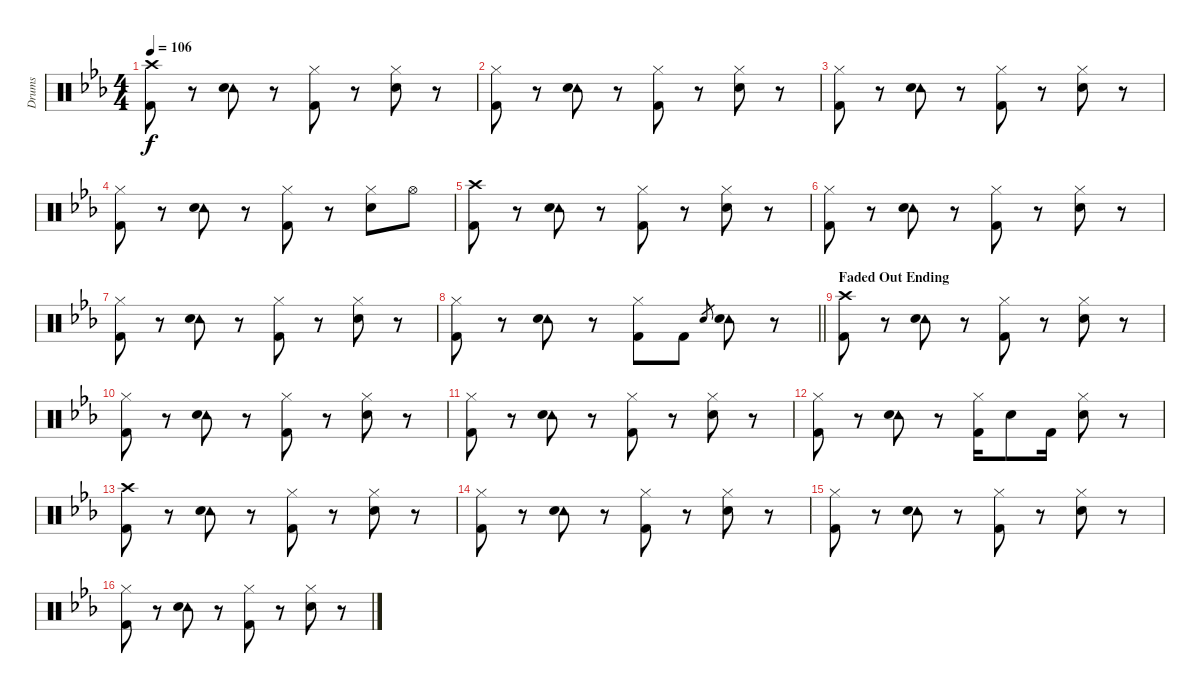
\track ("Drums" "Drums") {instrument percussion}
\staff {score}
\articulation defaults
\ts (4 4)
\tempo 106
\clef neutral
\ks cminor
("Crash high (hit)" "Kick (hit) 2").8{dy f} r.8 ("Tambourine (hit)" "Snare (hit) 2").8 r.8 ("Hi-Hat (closed)" "Kick (hit) 2").8 r.8 ("Hi-Hat (closed)" "Snare (hit) 2").8 r.8 |
("Hi-Hat (closed)" "Kick (hit) 2").8 r.8 ("Tambourine (hit)" "Snare (hit) 2").8 r.8 ("Hi-Hat (closed)" "Kick (hit) 2").8 r.8 ("Hi-Hat (closed)" "Snare (hit) 2").8 r.8 |
("Hi-Hat (closed)" "Kick (hit) 2").8 r.8 ("Tambourine (hit)" "Snare (hit) 2").8 r.8 ("Hi-Hat (closed)" "Kick (hit) 2").8 r.8 ("Hi-Hat (closed)" "Snare (hit) 2").8 r.8 |
("Hi-Hat (closed)" "Kick (hit) 2").8 r.8 ("Tambourine (hit)" "Snare (hit) 2").8 r.8 ("Hi-Hat (closed)" "Kick (hit) 2").8 r.8 ("Hi-Hat (closed)" "Snare (hit) 2").8 "Hi-Hat (open)".8 |
("Crash high (hit)" "Kick (hit) 2").8 r.8 ("Tambourine (hit)" "Snare (hit) 2").8 r.8 ("Hi-Hat (closed)" "Kick (hit) 2").8 r.8 ("Hi-Hat (closed)" "Snare (hit) 2").8 r.8 |
("Hi-Hat (closed)" "Kick (hit) 2").8 r.8 ("Tambourine (hit)" "Snare (hit) 2").8 r.8 ("Hi-Hat (closed)" "Kick (hit) 2").8 r.8 ("Hi-Hat (closed)" "Snare (hit) 2").8 r.8 |
("Hi-Hat (closed)" "Kick (hit) 2").8 r.8 ("Tambourine (hit)" "Snare (hit) 2").8 r.8 ("Hi-Hat (closed)" "Kick (hit) 2").8 r.8 ("Hi-Hat (closed)" "Snare (hit) 2").8 r.8 |
\barLineRight lightlight
("Hi-Hat (closed)" "Kick (hit) 2").8 r.8 ("Tambourine (hit)" "Snare (hit) 2").8 r.8 ("Hi-Hat (closed)" "Kick (hit) 2").8 "Kick (hit) 2".8 "Snare (hit) 2".8{gr} ("Tambourine (hit)" "Snare (hit) 2").8 r.8 |
\section ("" "Faded Out Ending")
("Crash high (hit)" "Kick (hit) 2").8 r.8 ("Tambourine (hit)" "Snare (hit) 2").8 r.8 ("Hi-Hat (closed)" "Kick (hit) 2").8 r.8 ("Hi-Hat (closed)" "Snare (hit) 2").8 r.8 |
("Hi-Hat (closed)" "Kick (hit) 2").8 r.8 ("Tambourine (hit)" "Snare (hit) 2").8 r.8 ("Hi-Hat (closed)" "Kick (hit) 2").8 r.8 ("Hi-Hat (closed)" "Snare (hit) 2").8 r.8 |
("Hi-Hat (closed)" "Kick (hit) 2").8 r.8 ("Tambourine (hit)" "Snare (hit) 2").8 r.8 ("Hi-Hat (closed)" "Kick (hit) 2").8 r.8 ("Hi-Hat (closed)" "Snare (hit) 2").8 r.8 |
("Hi-Hat (closed)" "Kick (hit) 2").8 r.8 ("Tambourine (hit)" "Snare (hit) 2").8 r.8 ("Hi-Hat (closed)" "Kick (hit) 2").16 "Snare (hit) 2".8 "Kick (hit) 2".16 ("Hi-Hat (closed)" "Snare (hit) 2").8 r.8 |
("Crash high (hit)" "Kick (hit) 2").8 r.8 ("Tambourine (hit)" "Snare (hit) 2").8 r.8 ("Hi-Hat (closed)" "Kick (hit) 2").8 r.8 ("Hi-Hat (closed)" "Snare (hit) 2").8 r.8 |
("Hi-Hat (closed)" "Kick (hit) 2").8 r.8 ("Tambourine (hit)" "Snare (hit) 2").8 r.8 ("Hi-Hat (closed)" "Kick (hit) 2").8 r.8 ("Hi-Hat (closed)" "Snare (hit) 2").8 r.8 |
("Hi-Hat (closed)" "Kick (hit) 2").8 r.8 ("Tambourine (hit)" "Snare (hit) 2").8 r.8 ("Hi-Hat (closed)" "Kick (hit) 2").8 r.8 ("Hi-Hat (closed)" "Snare (hit) 2").8 r.8 |
("Hi-Hat (closed)" "Kick (hit) 2").8 r.8 ("Tambourine (hit)" "Snare (hit) 2").8 r.8 ("Hi-Hat (closed)" "Kick (hit) 2").8 r.8 ("Hi-Hat (closed)" "Snare (hit) 2").8 r.8
